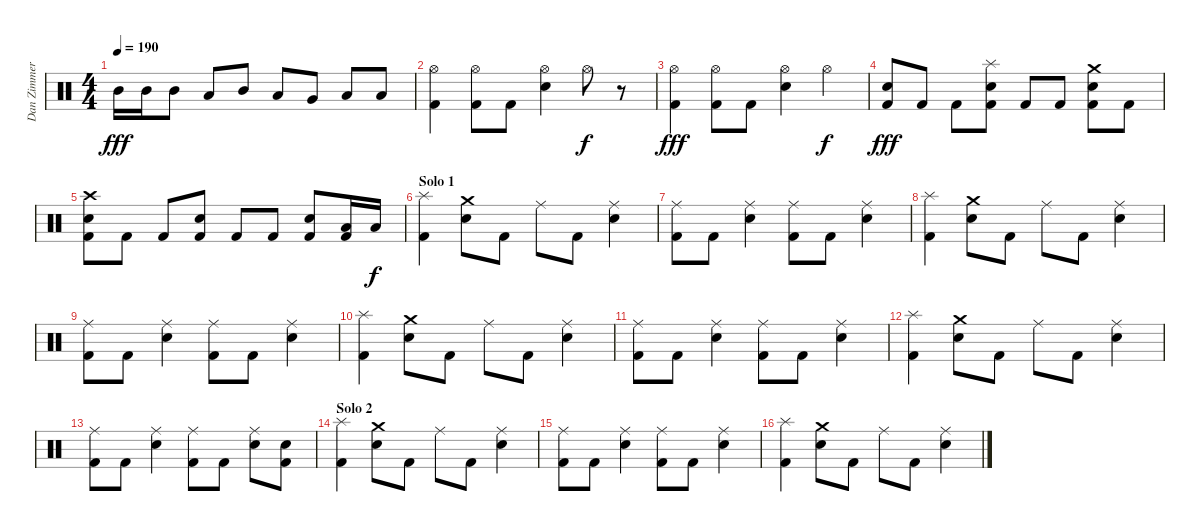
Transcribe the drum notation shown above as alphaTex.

\track ("Dan Zimmermann" "Dan Zimmer") {instrument percussion}
\staff {score}
\articulation defaults
\ts (4 4)
\tempo 190
\clef neutral
\ks c "Mid Tom (hit)".16{dy fff} "Mid Tom (hit)".16 "Mid Tom (hit)".8 "Low Tom (hit)".8 "Mid Tom (hit)".8 "Low Tom (hit)".8 "Very Low Tom (hit)".8 "Low Floor Tom (hit)".8 "Low Floor Tom (hit)".8
|
("Hi-Hat (open)" "Kick (hit) 2").4 ("Hi-Hat (open)" "Kick (hit) 2").8 "Kick (hit) 2".8 ("Hi-Hat (open)" "Electric Snare (hit)").4 "Hi-Hat (open)".8{dy f} r.8 |
("Hi-Hat (open)" "Kick (hit) 2").4{dy fff} ("Hi-Hat (open)" "Kick (hit) 2").8 "Kick (hit) 2".8 ("Hi-Hat (open)" "Electric Snare (hit)").4 "Hi-Hat (open)".4{dy f} |
("Electric Snare (hit)" "Kick (hit) 2").8{dy fff} "Kick (hit) 2".8 "Kick (hit) 2".8 ("Splash (hit)" "Electric Snare (hit)" "Kick (hit) 2").8 "Kick (hit) 2".8 "Kick (hit) 2".8 ("Crash medium (hit)" "Electric Snare (hit)" "Kick (hit) 2").8 "Kick (hit) 2".8 |
("Crash high (hit)" "Electric Snare (hit)" "Kick (hit) 2").8 "Kick (hit) 2".8 "Kick (hit) 2".8 ("Electric Snare (hit)" "Kick (hit) 2").8 "Kick (hit) 2".8 "Kick (hit) 2".8 ("Electric Snare (hit)" "Kick (hit) 2").8 ("Low Tom (hit)" "Kick (hit) 2").16 "Low Tom (hit)".16{dy f} |
\section ("" "Solo 1")
("Splash (hit)" "Kick (hit) 2").4 ("Crash medium (hit)" "Electric Snare (hit)").8 "Kick (hit) 2".8 "Ride (middle)".8 "Kick (hit) 2".8 ("Ride (middle)" "Electric Snare (hit)").4 |
("Ride (middle)" "Kick (hit) 2").8 "Kick (hit) 2".8 ("Ride (middle)" "Electric Snare (hit)").4 ("Ride (middle)" "Kick (hit) 2").8 "Kick (hit) 2".8 ("Ride (middle)" "Electric Snare (hit)").4 |
("Splash (hit)" "Kick (hit) 2").4 ("Crash medium (hit)" "Electric Snare (hit)").8 "Kick (hit) 2".8 "Ride (middle)".8 "Kick (hit) 2".8 ("Ride (middle)" "Electric Snare (hit)").4 |
("Ride (middle)" "Kick (hit) 2").8 "Kick (hit) 2".8 ("Ride (middle)" "Electric Snare (hit)").4 ("Ride (middle)" "Kick (hit) 2").8 "Kick (hit) 2".8 ("Ride (middle)" "Electric Snare (hit)").4 |
("Splash (hit)" "Kick (hit) 2").4 ("Crash medium (hit)" "Electric Snare (hit)").8 "Kick (hit) 2".8 "Ride (middle)".8 "Kick (hit) 2".8 ("Ride (middle)" "Electric Snare (hit)").4 |
("Ride (middle)" "Kick (hit) 2").8 "Kick (hit) 2".8 ("Ride (middle)" "Electric Snare (hit)").4 ("Ride (middle)" "Kick (hit) 2").8 "Kick (hit) 2".8 ("Ride (middle)" "Electric Snare (hit)").4 |
("Splash (hit)" "Kick (hit) 2").4 ("Crash medium (hit)" "Electric Snare (hit)").8 "Kick (hit) 2".8 "Ride (middle)".8 "Kick (hit) 2".8 ("Ride (middle)" "Electric Snare (hit)").4 |
("Ride (middle)" "Kick (hit) 2").8 "Kick (hit) 2".8 ("Ride (middle)" "Electric Snare (hit)").4 ("Ride (middle)" "Kick (hit) 2").8 "Kick (hit) 2".8 ("Ride (middle)" "Electric Snare (hit)").8 ("Electric Snare (hit)" "Kick (hit) 2").8 |
\section ("" "Solo 2")
("Splash (hit)" "Kick (hit) 2").4 ("Crash medium (hit)" "Electric Snare (hit)").8 "Kick (hit) 2".8 "Ride (middle)".8 "Kick (hit) 2".8 ("Ride (middle)" "Electric Snare (hit)").4 |
("Ride (middle)" "Kick (hit) 2").8 "Kick (hit) 2".8 ("Ride (middle)" "Electric Snare (hit)").4 ("Ride (middle)" "Kick (hit) 2").8 "Kick (hit) 2".8 ("Ride (middle)" "Electric Snare (hit)").4 |
("Splash (hit)" "Kick (hit) 2").4 ("Crash medium (hit)" "Electric Snare (hit)").8 "Kick (hit) 2".8 "Ride (middle)".8 "Kick (hit) 2".8 ("Ride (middle)" "Electric Snare (hit)").4
